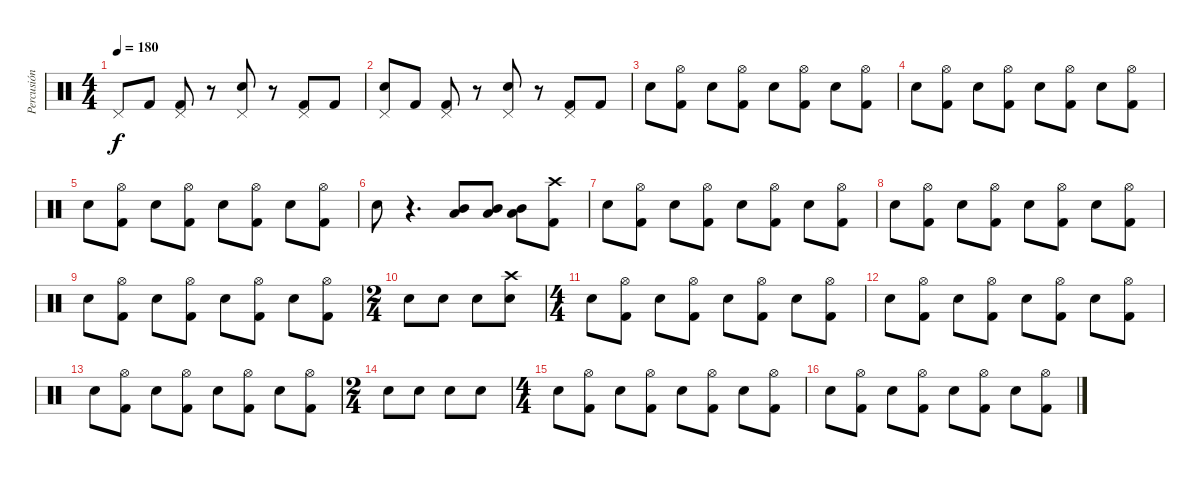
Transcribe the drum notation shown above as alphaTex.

\track ("Percusión" "Percusión") {instrument percussion}
\staff {score}
\articulation defaults
\ts (4 4)
\tempo 180
\clef neutral
\ks c "Pedal Hi-Hat (hit)".8{dy f} "Kick (hit) 2".8
("Pedal Hi-Hat (hit)" "Kick (hit) 2").8 r.8 ("Pedal Hi-Hat (hit)" "Electric Snare (hit)").8 r.8 ("Pedal Hi-Hat (hit)" "Kick (hit) 2").8 "Kick (hit) 2".8 |
("Pedal Hi-Hat (hit)" "Electric Snare (hit)").8 "Kick (hit) 2".8 ("Pedal Hi-Hat (hit)" "Kick (hit) 2").8 r.8 ("Pedal Hi-Hat (hit)" "Electric Snare (hit)").8 r.8 ("Pedal Hi-Hat (hit)" "Kick (hit) 2").8 "Kick (hit) 2".8 |
"Electric Snare (hit)".8 ("Hi-Hat (open)" "Kick (hit) 2").8 "Electric Snare (hit)".8 ("Hi-Hat (open)" "Kick (hit) 2").8 "Electric Snare (hit)".8 ("Hi-Hat (open)" "Kick (hit) 2").8 "Electric Snare (hit)".8 ("Hi-Hat (open)" "Kick (hit) 2").8 |
"Electric Snare (hit)".8 ("Hi-Hat (open)" "Kick (hit) 2").8 "Electric Snare (hit)".8 ("Hi-Hat (open)" "Kick (hit) 2").8 "Electric Snare (hit)".8 ("Hi-Hat (open)" "Kick (hit) 2").8 "Electric Snare (hit)".8 ("Hi-Hat (open)" "Kick (hit) 2").8 |
"Electric Snare (hit)".8 ("Hi-Hat (open)" "Kick (hit) 2").8 "Electric Snare (hit)".8 ("Hi-Hat (open)" "Kick (hit) 2").8 "Electric Snare (hit)".8 ("Hi-Hat (open)" "Kick (hit) 2").8 "Electric Snare (hit)".8 ("Hi-Hat (open)" "Kick (hit) 2").8 |
"Electric Snare (hit)".8 r.4{d} ("Mid Tom (hit)" "Low Tom (hit)").8 ("Mid Tom (hit)" "Low Tom (hit)").8 ("Mid Tom (hit)" "Low Tom (hit)").8 ("Crash high (hit)" "Kick (hit) 2").8 |
"Electric Snare (hit)".8 ("Hi-Hat (open)" "Kick (hit) 2").8 "Electric Snare (hit)".8 ("Hi-Hat (open)" "Kick (hit) 2").8 "Electric Snare (hit)".8 ("Hi-Hat (open)" "Kick (hit) 2").8 "Electric Snare (hit)".8 ("Hi-Hat (open)" "Kick (hit) 2").8 |
"Electric Snare (hit)".8 ("Hi-Hat (open)" "Kick (hit) 2").8 "Electric Snare (hit)".8 ("Hi-Hat (open)" "Kick (hit) 2").8 "Electric Snare (hit)".8 ("Hi-Hat (open)" "Kick (hit) 2").8 "Electric Snare (hit)".8 ("Hi-Hat (open)" "Kick (hit) 2").8 |
"Electric Snare (hit)".8 ("Hi-Hat (open)" "Kick (hit) 2").8 "Electric Snare (hit)".8 ("Hi-Hat (open)" "Kick (hit) 2").8 "Electric Snare (hit)".8 ("Hi-Hat (open)" "Kick (hit) 2").8 "Electric Snare (hit)".8 ("Hi-Hat (open)" "Kick (hit) 2").8 |
\ts (2 4)
"Electric Snare (hit)".8 "Electric Snare (hit)".8 "Electric Snare (hit)".8 ("Crash high (hit)" "Electric Snare (hit)").8 |
\ts (4 4)
"Electric Snare (hit)".8 ("Hi-Hat (open)" "Kick (hit) 2").8 "Electric Snare (hit)".8 ("Hi-Hat (open)" "Kick (hit) 2").8 "Electric Snare (hit)".8 ("Hi-Hat (open)" "Kick (hit) 2").8 "Electric Snare (hit)".8 ("Hi-Hat (open)" "Kick (hit) 2").8 |
"Electric Snare (hit)".8 ("Hi-Hat (open)" "Kick (hit) 2").8 "Electric Snare (hit)".8 ("Hi-Hat (open)" "Kick (hit) 2").8 "Electric Snare (hit)".8 ("Hi-Hat (open)" "Kick (hit) 2").8 "Electric Snare (hit)".8 ("Hi-Hat (open)" "Kick (hit) 2").8 |
"Electric Snare (hit)".8 ("Hi-Hat (open)" "Kick (hit) 2").8 "Electric Snare (hit)".8 ("Hi-Hat (open)" "Kick (hit) 2").8 "Electric Snare (hit)".8 ("Hi-Hat (open)" "Kick (hit) 2").8 "Electric Snare (hit)".8 ("Hi-Hat (open)" "Kick (hit) 2").8 |
\ts (2 4)
"Electric Snare (hit)".8 "Electric Snare (hit)".8 "Electric Snare (hit)".8 "Electric Snare (hit)".8 |
\ts (4 4)
"Electric Snare (hit)".8 ("Hi-Hat (open)" "Kick (hit) 2").8 "Electric Snare (hit)".8 ("Hi-Hat (open)" "Kick (hit) 2").8 "Electric Snare (hit)".8 ("Hi-Hat (open)" "Kick (hit) 2").8 "Electric Snare (hit)".8 ("Hi-Hat (open)" "Kick (hit) 2").8 |
"Electric Snare (hit)".8 ("Hi-Hat (open)" "Kick (hit) 2").8 "Electric Snare (hit)".8 ("Hi-Hat (open)" "Kick (hit) 2").8 "Electric Snare (hit)".8 ("Hi-Hat (open)" "Kick (hit) 2").8 "Electric Snare (hit)".8 ("Hi-Hat (open)" "Kick (hit) 2").8
